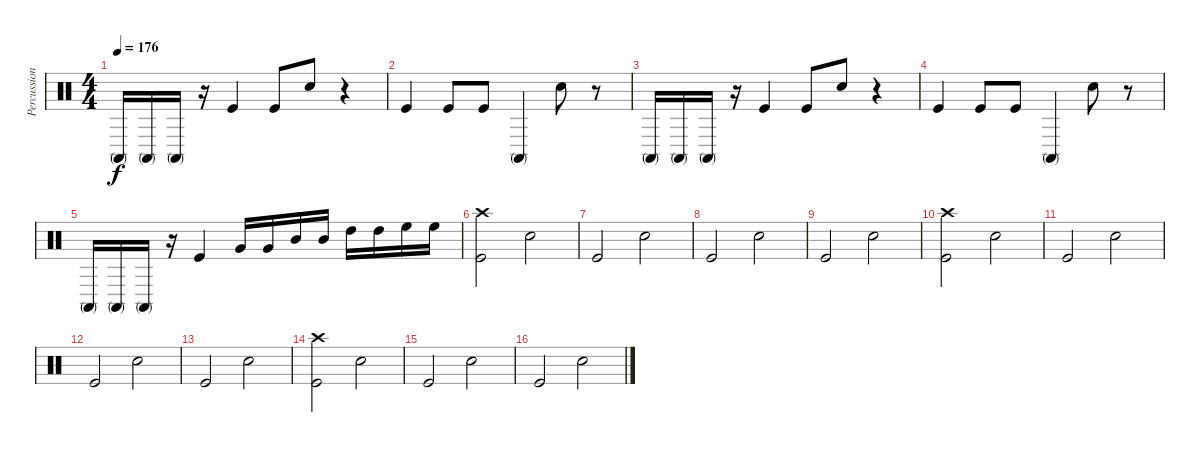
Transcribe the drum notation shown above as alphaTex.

\track ("Percussions" "Percussion") {instrument percussion}
\staff {score}
\articulation defaults
\ts (4 4)
\tempo 176
\clef neutral
\ks c "Conga high (mute)".16{dy f} "Conga high (mute)".16 "Conga high (mute)".16
r.16 "Kick (hit)".4 "Kick (hit)".8 "Snare (hit) 2".8 r.4 |
"Kick (hit)".4 "Kick (hit)".8 "Kick (hit)".8 "Conga high (mute)".4 "Snare (hit) 2".8 r.8 |
"Conga high (mute)".16 "Conga high (mute)".16 "Conga high (mute)".16 r.16 "Kick (hit)".4 "Kick (hit)".8 "Snare (hit) 2".8 r.4 |
"Kick (hit)".4 "Kick (hit)".8 "Kick (hit)".8 "Conga high (mute)".4 "Snare (hit) 2".8 r.8 |
"Conga high (mute)".16 "Conga high (mute)".16 "Conga high (mute)".16 r.16 "Kick (hit)".4 "Very Low Tom (hit)".16 "Very Low Tom (hit)".16 "Mid Tom (hit)".16 "Mid Tom (hit)".16 "High Tom (hit)".16 "High Tom (hit)".16 "High Floor Tom (hit)".16 "High Floor Tom (hit)".16 |
("Crash high (hit)" "Kick (hit)").2 "Snare (hit) 2".2 |
"Kick (hit)".2 "Snare (hit) 2".2 |
"Kick (hit)".2 "Snare (hit) 2".2 |
"Kick (hit)".2 "Snare (hit) 2".2 |
("Crash high (hit)" "Kick (hit)").2 "Snare (hit) 2".2 |
"Kick (hit)".2 "Snare (hit) 2".2 |
"Kick (hit)".2 "Snare (hit) 2".2 |
"Kick (hit)".2 "Snare (hit) 2".2 |
("Crash high (hit)" "Kick (hit)").2 "Snare (hit) 2".2 |
"Kick (hit)".2 "Snare (hit) 2".2 |
"Kick (hit)".2 "Snare (hit) 2".2
